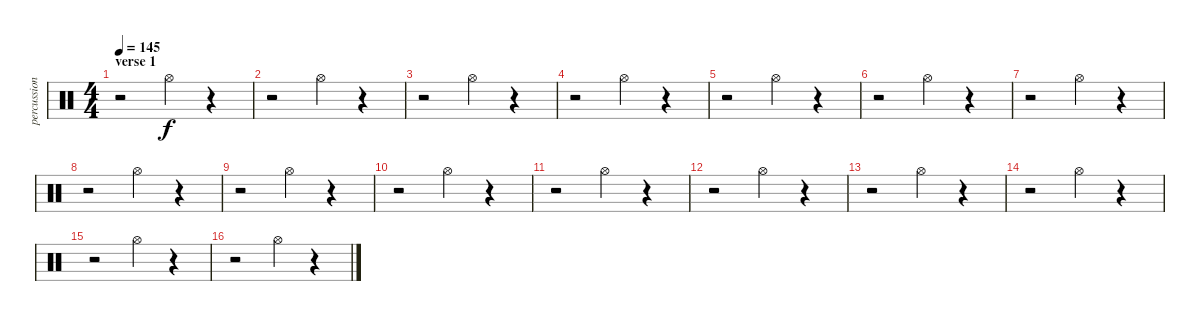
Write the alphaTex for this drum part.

\track ("percussion" "percussion") {instrument percussion}
\staff {score}
\articulation defaults
\ts (4 4)
\section ("" "verse 1")
\tempo 145
\clef neutral
\ks c
r.2{dy f} "Hi-Hat (open)".4 r.4 |
r.2 "Hi-Hat (open)".4 r.4 |
r.2 "Hi-Hat (open)".4 r.4 |
r.2 "Hi-Hat (open)".4 r.4 |
r.2 "Hi-Hat (open)".4 r.4 |
r.2 "Hi-Hat (open)".4 r.4 |
r.2 "Hi-Hat (open)".4 r.4 |
r.2 "Hi-Hat (open)".4 r.4 |
r.2 "Hi-Hat (open)".4 r.4 |
r.2 "Hi-Hat (open)".4 r.4 |
r.2 "Hi-Hat (open)".4 r.4 |
r.2 "Hi-Hat (open)".4 r.4 |
r.2 "Hi-Hat (open)".4 r.4 |
r.2 "Hi-Hat (open)".4 r.4 |
r.2 "Hi-Hat (open)".4 r.4 |
r.2 "Hi-Hat (open)".4 r.4
